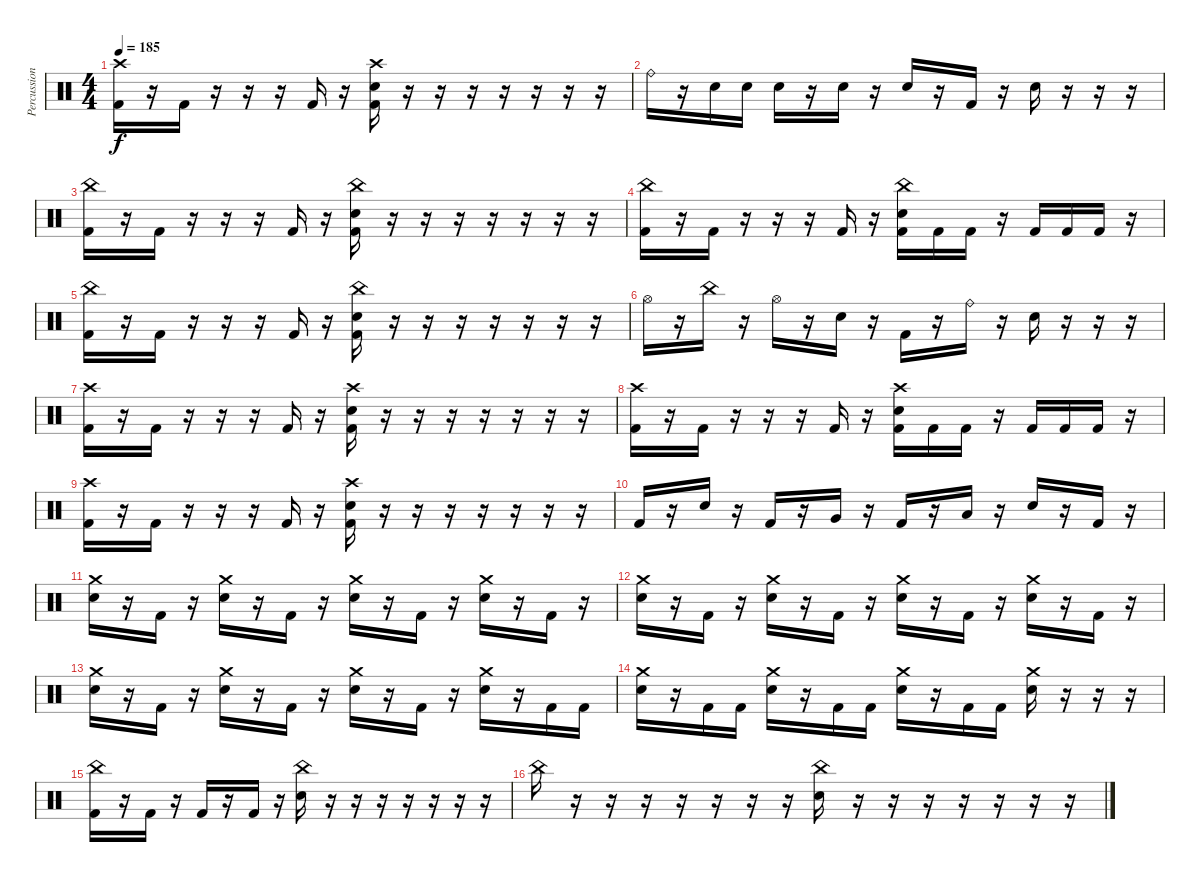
\track ("Percussion" "Percussion") {instrument percussion}
\staff {score}
\articulation defaults
\ts (4 4)
\tempo 185
\clef neutral
\ks c
("Crash high (hit)" "Kick (hit) 2").16{dy f} r.16 "Kick (hit) 2".16 r.16 r.16 r.16 "Kick (hit) 2".16 r.16 ("Crash high (hit)" "Electric Snare (hit)" "Kick (hit) 2").16 r.16 r.16 r.16 r.16 r.16 r.16 r.16 |
"Ride (bell)".16 r.16 "Electric Snare (hit)".16 "Electric Snare (hit)".16 "Electric Snare (hit)".16 r.16 "Electric Snare (hit)".16 r.16 "Electric Snare (hit)".16 r.16 "Kick (hit) 2".16 r.16 "Electric Snare (hit)".16 r.16 r.16 r.16 |
("China (hit)" "Kick (hit) 2").16 r.16 "Kick (hit) 2".16 r.16 r.16 r.16 "Kick (hit) 2".16 r.16 ("China (hit)" "Electric Snare (hit)" "Kick (hit) 2").16 r.16 r.16 r.16 r.16 r.16 r.16 r.16 |
("China (hit)" "Kick (hit) 2").16 r.16 "Kick (hit) 2".16 r.16 r.16 r.16 "Kick (hit) 2".16 r.16 ("China (hit)" "Electric Snare (hit)" "Kick (hit) 2").16 "Kick (hit) 2".16 "Kick (hit) 2".16 r.16 "Kick (hit) 2".16 "Kick (hit) 2".16 "Kick (hit) 2".16 r.16 |
("China (hit)" "Kick (hit) 2").16 r.16 "Kick (hit) 2".16 r.16 r.16 r.16 "Kick (hit) 2".16 r.16 ("China (hit)" "Electric Snare (hit)" "Kick (hit) 2").16 r.16 r.16 r.16 r.16 r.16 r.16 r.16 |
"Hi-Hat (open)".16 r.16 "China (hit)".16 r.16 "Hi-Hat (open)".16 r.16 "Electric Snare (hit)".16 r.16 "Kick (hit) 2".16 r.16 "Ride (bell)".16 r.16 "Electric Snare (hit)".16 r.16 r.16 r.16 |
("Crash high (hit)" "Kick (hit) 2").16 r.16 "Kick (hit) 2".16 r.16 r.16 r.16 "Kick (hit) 2".16 r.16 ("Crash high (hit)" "Electric Snare (hit)" "Kick (hit) 2").16 r.16 r.16 r.16 r.16 r.16 r.16 r.16 |
("Crash high (hit)" "Kick (hit) 2").16 r.16 "Kick (hit) 2".16 r.16 r.16 r.16 "Kick (hit) 2".16 r.16 ("Crash high (hit)" "Electric Snare (hit)" "Kick (hit) 2").16 "Kick (hit) 2".16 "Kick (hit) 2".16 r.16 "Kick (hit) 2".16 "Kick (hit) 2".16 "Kick (hit) 2".16 r.16 |
("Crash high (hit)" "Kick (hit) 2").16 r.16 "Kick (hit) 2".16 r.16 r.16 r.16 "Kick (hit) 2".16 r.16 ("Crash high (hit)" "Electric Snare (hit)" "Kick (hit) 2").16 r.16 r.16 r.16 r.16 r.16 r.16 r.16 |
"Kick (hit) 2".16 r.16 "Electric Snare (hit)".16 r.16 "Kick (hit) 2".16 r.16 "Very Low Tom (hit)".16 r.16 "Kick (hit) 2".16 r.16 "Low Floor Tom (hit)".16 r.16 "Electric Snare (hit)".16 r.16 "Kick (hit) 2".16 r.16 |
("Crash medium (hit)" "Electric Snare (hit)").16 r.16 "Kick (hit) 2".16 r.16 ("Crash medium (hit)" "Electric Snare (hit)").16 r.16 "Kick (hit) 2".16 r.16 ("Crash medium (hit)" "Electric Snare (hit)").16 r.16 "Kick (hit) 2".16 r.16 ("Crash medium (hit)" "Electric Snare (hit)").16 r.16 "Kick (hit) 2".16 r.16 |
("Crash medium (hit)" "Electric Snare (hit)").16 r.16 "Kick (hit) 2".16 r.16 ("Crash medium (hit)" "Electric Snare (hit)").16 r.16 "Kick (hit) 2".16 r.16 ("Crash medium (hit)" "Electric Snare (hit)").16 r.16 "Kick (hit) 2".16 r.16 ("Crash medium (hit)" "Electric Snare (hit)").16 r.16 "Kick (hit) 2".16 r.16 |
("Crash medium (hit)" "Electric Snare (hit)").16 r.16 "Kick (hit) 2".16 r.16 ("Crash medium (hit)" "Electric Snare (hit)").16 r.16 "Kick (hit) 2".16 r.16 ("Crash medium (hit)" "Electric Snare (hit)").16 r.16 "Kick (hit) 2".16 r.16 ("Crash medium (hit)" "Electric Snare (hit)").16 r.16 "Kick (hit) 2".16 "Kick (hit) 2".16 |
("Crash medium (hit)" "Electric Snare (hit)").16 r.16 "Kick (hit) 2".16 "Kick (hit) 2".16 ("Crash medium (hit)" "Electric Snare (hit)").16 r.16 "Kick (hit) 2".16 "Kick (hit) 2".16 ("Crash medium (hit)" "Electric Snare (hit)").16 r.16 "Kick (hit) 2".16 "Kick (hit) 2".16 ("Crash medium (hit)" "Electric Snare (hit)").16 r.16 r.16 r.16 |
("China (hit)" "Kick (hit) 2").16 r.16 "Kick (hit) 2".16 r.16 "Kick (hit) 2".16 r.16 "Kick (hit) 2".16 r.16 ("China (hit)" "Electric Snare (hit)").16 r.16 r.16 r.16 r.16 r.16 r.16 r.16 |
"China (hit)".16 r.16 r.16 r.16 r.16 r.16 r.16 r.16 ("China (hit)" "Electric Snare (hit)").16 r.16 r.16 r.16 r.16 r.16 r.16 r.16
